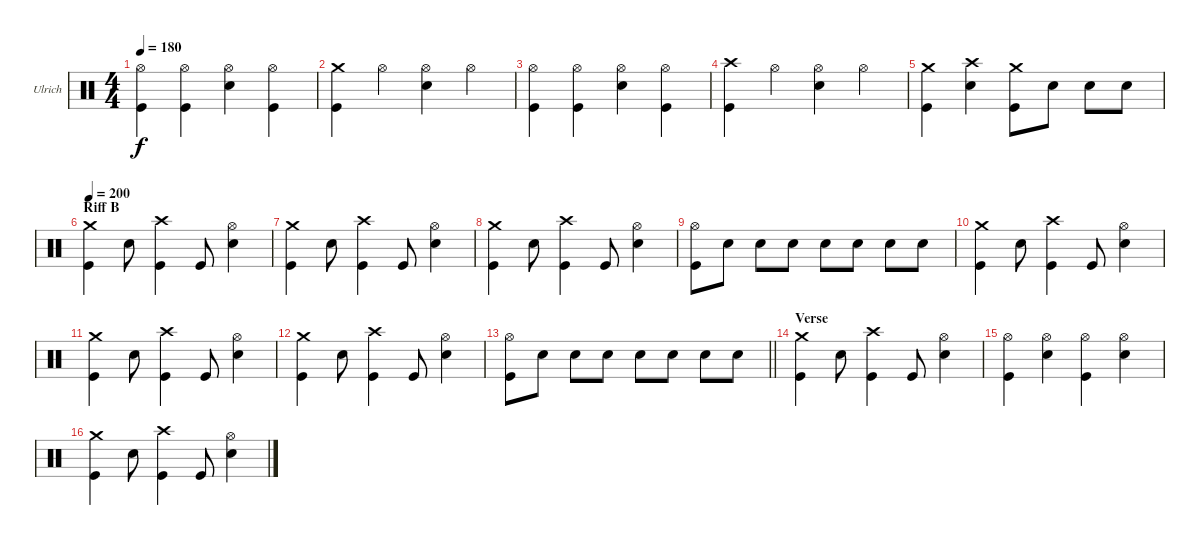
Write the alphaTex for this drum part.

\bracketExtendMode groupsimilarinstruments
\firstSystemTrackNameOrientation horizontal
\otherSystemsTrackNameOrientation horizontal
\track ("Drumkit" "Ulrich") {instrument percussion}
\staff {score}
\articulation defaults
\ts (4 4)
\tempo 180
\clef neutral
\ks c
("Hi-Hat (open)" "Kick (hit)").4{dy f} ("Hi-Hat (open)" "Kick (hit)").4 ("Hi-Hat (open)" "Snare (hit) 2").4 ("Hi-Hat (open)" "Kick (hit)").4 |
("Crash medium (hit)" "Kick (hit)").4 "Hi-Hat (open)".4 ("Hi-Hat (open)" "Snare (hit) 2").4 "Hi-Hat (open)".4 |
("Hi-Hat (open)" "Kick (hit)").4 ("Hi-Hat (open)" "Kick (hit)").4 ("Hi-Hat (open)" "Snare (hit) 2").4 ("Hi-Hat (open)" "Kick (hit)").4 |
("Crash high (hit)" "Kick (hit)").4 "Hi-Hat (open)".4 ("Hi-Hat (open)" "Snare (hit) 2").4 "Hi-Hat (open)".4 |
("Crash medium (hit)" "Kick (hit)").4 ("Crash high (hit)" "Snare (hit) 2").4 ("Crash medium (hit)" "Kick (hit)").8 "Snare (hit) 2".8 "Snare (hit) 2".8 "Snare (hit) 2".8 |
\section ("" "Riff B")
\tempo 200
("Crash medium (hit)" "Kick (hit)").4 "Snare (hit) 2".8 ("Crash high (hit)" "Kick (hit)").4 "Kick (hit)".8 ("Hi-Hat (open)" "Snare (hit) 2").4 |
("Crash medium (hit)" "Kick (hit)").4 "Snare (hit) 2".8 ("Crash high (hit)" "Kick (hit)").4 "Kick (hit)".8 ("Hi-Hat (open)" "Snare (hit) 2").4 |
("Crash medium (hit)" "Kick (hit)").4 "Snare (hit) 2".8 ("Crash high (hit)" "Kick (hit)").4 "Kick (hit)".8 ("Hi-Hat (open)" "Snare (hit) 2").4 |
("Hi-Hat (open)" "Kick (hit)").8 "Snare (hit) 2".8 "Snare (hit) 2".8 "Snare (hit) 2".8 "Snare (hit) 2".8 "Snare (hit) 2".8 "Snare (hit) 2".8 "Snare (hit) 2".8 |
("Crash medium (hit)" "Kick (hit)").4 "Snare (hit) 2".8 ("Crash high (hit)" "Kick (hit)").4 "Kick (hit)".8 ("Hi-Hat (open)" "Snare (hit) 2").4 |
("Crash medium (hit)" "Kick (hit)").4 "Snare (hit) 2".8 ("Crash high (hit)" "Kick (hit)").4 "Kick (hit)".8 ("Hi-Hat (open)" "Snare (hit) 2").4 |
("Crash medium (hit)" "Kick (hit)").4 "Snare (hit) 2".8 ("Crash high (hit)" "Kick (hit)").4 "Kick (hit)".8 ("Hi-Hat (open)" "Snare (hit) 2").4 |
\barLineRight lightlight
("Hi-Hat (open)" "Kick (hit)").8 "Snare (hit) 2".8 "Snare (hit) 2".8 "Snare (hit) 2".8 "Snare (hit) 2".8 "Snare (hit) 2".8 "Snare (hit) 2".8 "Snare (hit) 2".8 |
\section ("" "Verse")
("Crash medium (hit)" "Kick (hit)").4 "Snare (hit) 2".8 ("Crash high (hit)" "Kick (hit)").4 "Kick (hit)".8 ("Hi-Hat (open)" "Snare (hit) 2").4 |
("Hi-Hat (open)" "Kick (hit)").4 ("Hi-Hat (open)" "Snare (hit) 2").4 ("Hi-Hat (open)" "Kick (hit)").4 ("Hi-Hat (open)" "Snare (hit) 2").4 |
("Crash medium (hit)" "Kick (hit)").4 "Snare (hit) 2".8 ("Crash high (hit)" "Kick (hit)").4 "Kick (hit)".8 ("Hi-Hat (open)" "Snare (hit) 2").4
